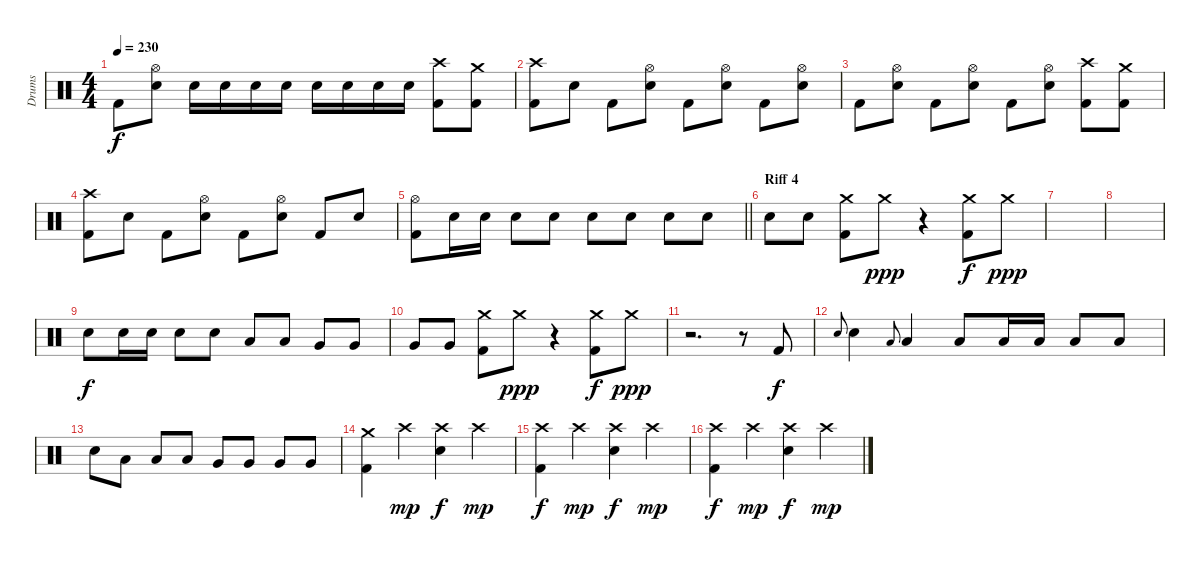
\track ("Drums" "Drums") {instrument percussion}
\staff {score}
\articulation defaults
\ts (4 4)
\tempo 230
\clef neutral
\ks c "Kick (hit) 2".8{dy f}
("Hi-Hat (open)" "Electric Snare (hit)").8 "Electric Snare (hit)".16 "Electric Snare (hit)".16 "Electric Snare (hit)".16 "Electric Snare (hit)".16 "Electric Snare (hit)".16 "Electric Snare (hit)".16 "Electric Snare (hit)".16 "Electric Snare (hit)".16 ("Kick (hit) 2" "Crash high (hit)").8 ("Kick (hit) 2" "Crash medium (hit)").8 |
("Crash high (hit)" "Kick (hit) 2").8 "Electric Snare (hit)".8 "Kick (hit) 2".8 ("Hi-Hat (open)" "Electric Snare (hit)").8 "Kick (hit) 2".8 ("Hi-Hat (open)" "Electric Snare (hit)").8 "Kick (hit) 2".8 ("Hi-Hat (open)" "Electric Snare (hit)").8 |
"Kick (hit) 2".8 ("Hi-Hat (open)" "Electric Snare (hit)").8 "Kick (hit) 2".8 ("Hi-Hat (open)" "Electric Snare (hit)").8 "Kick (hit) 2".8 ("Hi-Hat (open)" "Electric Snare (hit)").8 ("Crash high (hit)" "Kick (hit) 2").8 ("Crash medium (hit)" "Kick (hit) 2").8 |
("Kick (hit) 2" "Crash high (hit)").8 "Electric Snare (hit)".8 "Kick (hit) 2".8 ("Electric Snare (hit)" "Hi-Hat (open)").8 "Kick (hit) 2".8 ("Electric Snare (hit)" "Hi-Hat (open)").8 "Kick (hit) 2".8 "Electric Snare (hit)".8 |
\barLineRight lightlight
("Hi-Hat (open)" "Kick (hit) 2").8 "Electric Snare (hit)".16 "Electric Snare (hit)".16 "Electric Snare (hit)".8 "Electric Snare (hit)".8 "Electric Snare (hit)".8 "Electric Snare (hit)".8 "Electric Snare (hit)".8 "Electric Snare (hit)".8 |
\section ("" "Riff 4")
"Electric Snare (hit)".8 "Electric Snare (hit)".8 ("Crash medium (hit)" "Kick (hit) 2").8 "Crash medium (hit)".8{dy ppp} r.4 ("Crash medium (hit)" "Kick (hit) 2").8{dy f} "Crash medium (hit)".8{dy ppp} |
|
|
"Electric Snare (hit)".8{dy f} "Electric Snare (hit)".16 "Electric Snare (hit)".16 "Electric Snare (hit)".8 "Electric Snare (hit)".8 "Low Tom (hit)".8 "Low Tom (hit)".8 "Very Low Tom (hit)".8 "Very Low Tom (hit)".8 |
"Very Low Tom (hit)".8 "Very Low Tom (hit)".8 ("Crash medium (hit)" "Kick (hit) 2").8 "Crash medium (hit)".8{dy ppp} r.4 ("Crash medium (hit)" "Kick (hit) 2").8{dy f} "Crash medium (hit)".8{dy ppp} |
r.2{d} r.8 "Kick (hit) 2".8{dy f} |
"Electric Snare (hit)".8{gr onbeat} "Electric Snare (hit)".4 "Low Tom (hit)".8{gr onbeat} "Low Tom (hit)".4 "Low Tom (hit)".8 "Low Tom (hit)".16 "Low Tom (hit)".16 "Low Tom (hit)".8 "Low Tom (hit)".8 |
"Electric Snare (hit)".8 "Low Tom (hit)".8 "Low Tom (hit)".8 "Low Tom (hit)".8 "Very Low Tom (hit)".8 "Very Low Tom (hit)".8 "Very Low Tom (hit)".8 "Very Low Tom (hit)".8 |
("Crash medium (hit)" "Kick (hit) 2").4 "Crash high (hit)".4{dy mp} ("Electric Snare (hit)" "Crash high (hit)").4{dy f} "Crash high (hit)".4{dy mp} |
("Crash high (hit)" "Kick (hit) 2").4{dy f} "Crash high (hit)".4{dy mp} ("Electric Snare (hit)" "Crash high (hit)").4{dy f} "Crash high (hit)".4{dy mp} |
("Crash high (hit)" "Kick (hit) 2").4{dy f} "Crash high (hit)".4{dy mp} ("Electric Snare (hit)" "Crash high (hit)").4{dy f} "Crash high (hit)".4{dy mp}
